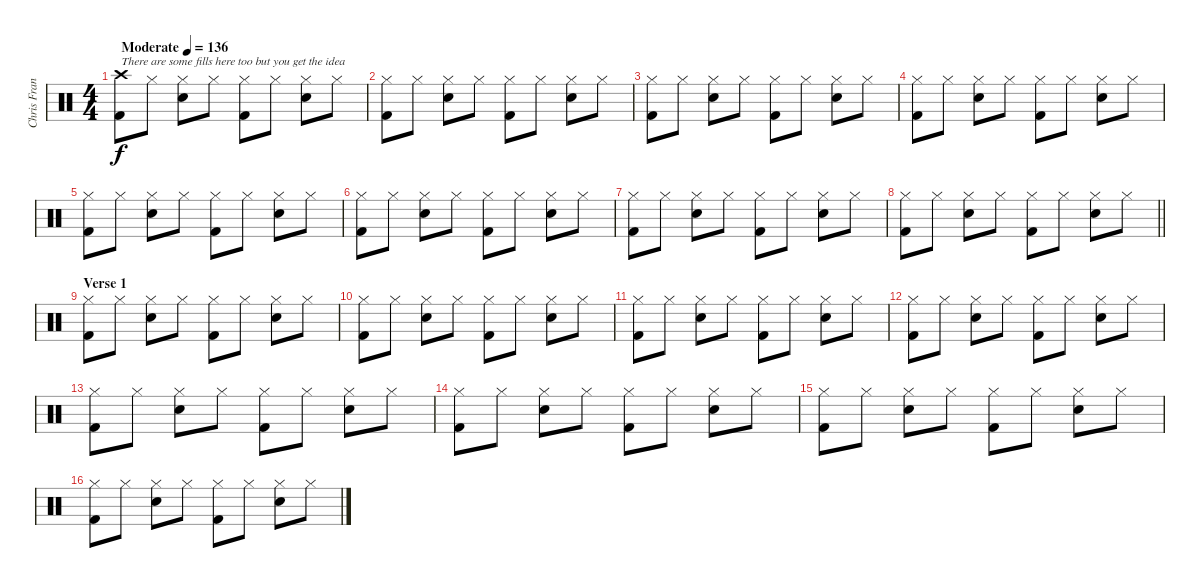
\track ("Chris Frantz" "Chris Fran") {instrument percussion}
\staff {score}
\articulation defaults
\ts (4 4)
\tempo (136 "Moderate")
\clef neutral
\ks c
("Crash high (hit)" "Kick (hit) 2").8{txt "There are some fills here too but you get the idea" dy f} "Hi-Hat (closed)".8 ("Hi-Hat (closed)" "Electric Snare (hit)").8 "Hi-Hat (closed)".8 ("Hi-Hat (closed)" "Kick (hit) 2").8 "Hi-Hat (closed)".8 ("Hi-Hat (closed)" "Electric Snare (hit)").8 "Hi-Hat (closed)".8 |
("Hi-Hat (closed)" "Kick (hit) 2").8 "Hi-Hat (closed)".8 ("Hi-Hat (closed)" "Electric Snare (hit)").8 "Hi-Hat (closed)".8 ("Hi-Hat (closed)" "Kick (hit) 2").8 "Hi-Hat (closed)".8 ("Hi-Hat (closed)" "Electric Snare (hit)").8 "Hi-Hat (closed)".8 |
("Hi-Hat (closed)" "Kick (hit) 2").8 "Hi-Hat (closed)".8 ("Hi-Hat (closed)" "Electric Snare (hit)").8 "Hi-Hat (closed)".8 ("Hi-Hat (closed)" "Kick (hit) 2").8 "Hi-Hat (closed)".8 ("Hi-Hat (closed)" "Electric Snare (hit)").8 "Hi-Hat (closed)".8 |
("Hi-Hat (closed)" "Kick (hit) 2").8 "Hi-Hat (closed)".8 ("Hi-Hat (closed)" "Electric Snare (hit)").8 "Hi-Hat (closed)".8 ("Hi-Hat (closed)" "Kick (hit) 2").8 "Hi-Hat (closed)".8 ("Hi-Hat (closed)" "Electric Snare (hit)").8 "Hi-Hat (closed)".8 |
("Hi-Hat (closed)" "Kick (hit) 2").8 "Hi-Hat (closed)".8 ("Hi-Hat (closed)" "Electric Snare (hit)").8 "Hi-Hat (closed)".8 ("Hi-Hat (closed)" "Kick (hit) 2").8 "Hi-Hat (closed)".8 ("Hi-Hat (closed)" "Electric Snare (hit)").8 "Hi-Hat (closed)".8 |
("Hi-Hat (closed)" "Kick (hit) 2").8 "Hi-Hat (closed)".8 ("Hi-Hat (closed)" "Electric Snare (hit)").8 "Hi-Hat (closed)".8 ("Hi-Hat (closed)" "Kick (hit) 2").8 "Hi-Hat (closed)".8 ("Hi-Hat (closed)" "Electric Snare (hit)").8 "Hi-Hat (closed)".8 |
("Hi-Hat (closed)" "Kick (hit) 2").8 "Hi-Hat (closed)".8 ("Hi-Hat (closed)" "Electric Snare (hit)").8 "Hi-Hat (closed)".8 ("Hi-Hat (closed)" "Kick (hit) 2").8 "Hi-Hat (closed)".8 ("Hi-Hat (closed)" "Electric Snare (hit)").8 "Hi-Hat (closed)".8 |
\barLineRight lightlight
("Hi-Hat (closed)" "Kick (hit) 2").8 "Hi-Hat (closed)".8 ("Hi-Hat (closed)" "Electric Snare (hit)").8 "Hi-Hat (closed)".8 ("Hi-Hat (closed)" "Kick (hit) 2").8 "Hi-Hat (closed)".8 ("Hi-Hat (closed)" "Electric Snare (hit)").8 "Hi-Hat (closed)".8 |
\section ("" "Verse 1 ")
("Hi-Hat (closed)" "Kick (hit) 2").8 "Hi-Hat (closed)".8 ("Hi-Hat (closed)" "Electric Snare (hit)").8 "Hi-Hat (closed)".8 ("Hi-Hat (closed)" "Kick (hit) 2").8 "Hi-Hat (closed)".8 ("Hi-Hat (closed)" "Electric Snare (hit)").8 "Hi-Hat (closed)".8 |
("Hi-Hat (closed)" "Kick (hit) 2").8 "Hi-Hat (closed)".8 ("Hi-Hat (closed)" "Electric Snare (hit)").8 "Hi-Hat (closed)".8 ("Hi-Hat (closed)" "Kick (hit) 2").8 "Hi-Hat (closed)".8 ("Hi-Hat (closed)" "Electric Snare (hit)").8 "Hi-Hat (closed)".8 |
("Hi-Hat (closed)" "Kick (hit) 2").8 "Hi-Hat (closed)".8 ("Hi-Hat (closed)" "Electric Snare (hit)").8 "Hi-Hat (closed)".8 ("Hi-Hat (closed)" "Kick (hit) 2").8 "Hi-Hat (closed)".8 ("Hi-Hat (closed)" "Electric Snare (hit)").8 "Hi-Hat (closed)".8 |
("Hi-Hat (closed)" "Kick (hit) 2").8 "Hi-Hat (closed)".8 ("Hi-Hat (closed)" "Electric Snare (hit)").8 "Hi-Hat (closed)".8 ("Hi-Hat (closed)" "Kick (hit) 2").8 "Hi-Hat (closed)".8 ("Hi-Hat (closed)" "Electric Snare (hit)").8 "Hi-Hat (closed)".8 |
("Hi-Hat (closed)" "Kick (hit) 2").8 "Hi-Hat (closed)".8 ("Hi-Hat (closed)" "Electric Snare (hit)").8 "Hi-Hat (closed)".8 ("Hi-Hat (closed)" "Kick (hit) 2").8 "Hi-Hat (closed)".8 ("Hi-Hat (closed)" "Electric Snare (hit)").8 "Hi-Hat (closed)".8 |
("Hi-Hat (closed)" "Kick (hit) 2").8 "Hi-Hat (closed)".8 ("Hi-Hat (closed)" "Electric Snare (hit)").8 "Hi-Hat (closed)".8 ("Hi-Hat (closed)" "Kick (hit) 2").8 "Hi-Hat (closed)".8 ("Hi-Hat (closed)" "Electric Snare (hit)").8 "Hi-Hat (closed)".8 |
("Hi-Hat (closed)" "Kick (hit) 2").8 "Hi-Hat (closed)".8 ("Hi-Hat (closed)" "Electric Snare (hit)").8 "Hi-Hat (closed)".8 ("Hi-Hat (closed)" "Kick (hit) 2").8 "Hi-Hat (closed)".8 ("Hi-Hat (closed)" "Electric Snare (hit)").8 "Hi-Hat (closed)".8 |
("Hi-Hat (closed)" "Kick (hit) 2").8 "Hi-Hat (closed)".8 ("Hi-Hat (closed)" "Electric Snare (hit)").8 "Hi-Hat (closed)".8 ("Hi-Hat (closed)" "Kick (hit) 2").8 "Hi-Hat (closed)".8 ("Hi-Hat (closed)" "Electric Snare (hit)").8 "Hi-Hat (closed)".8
